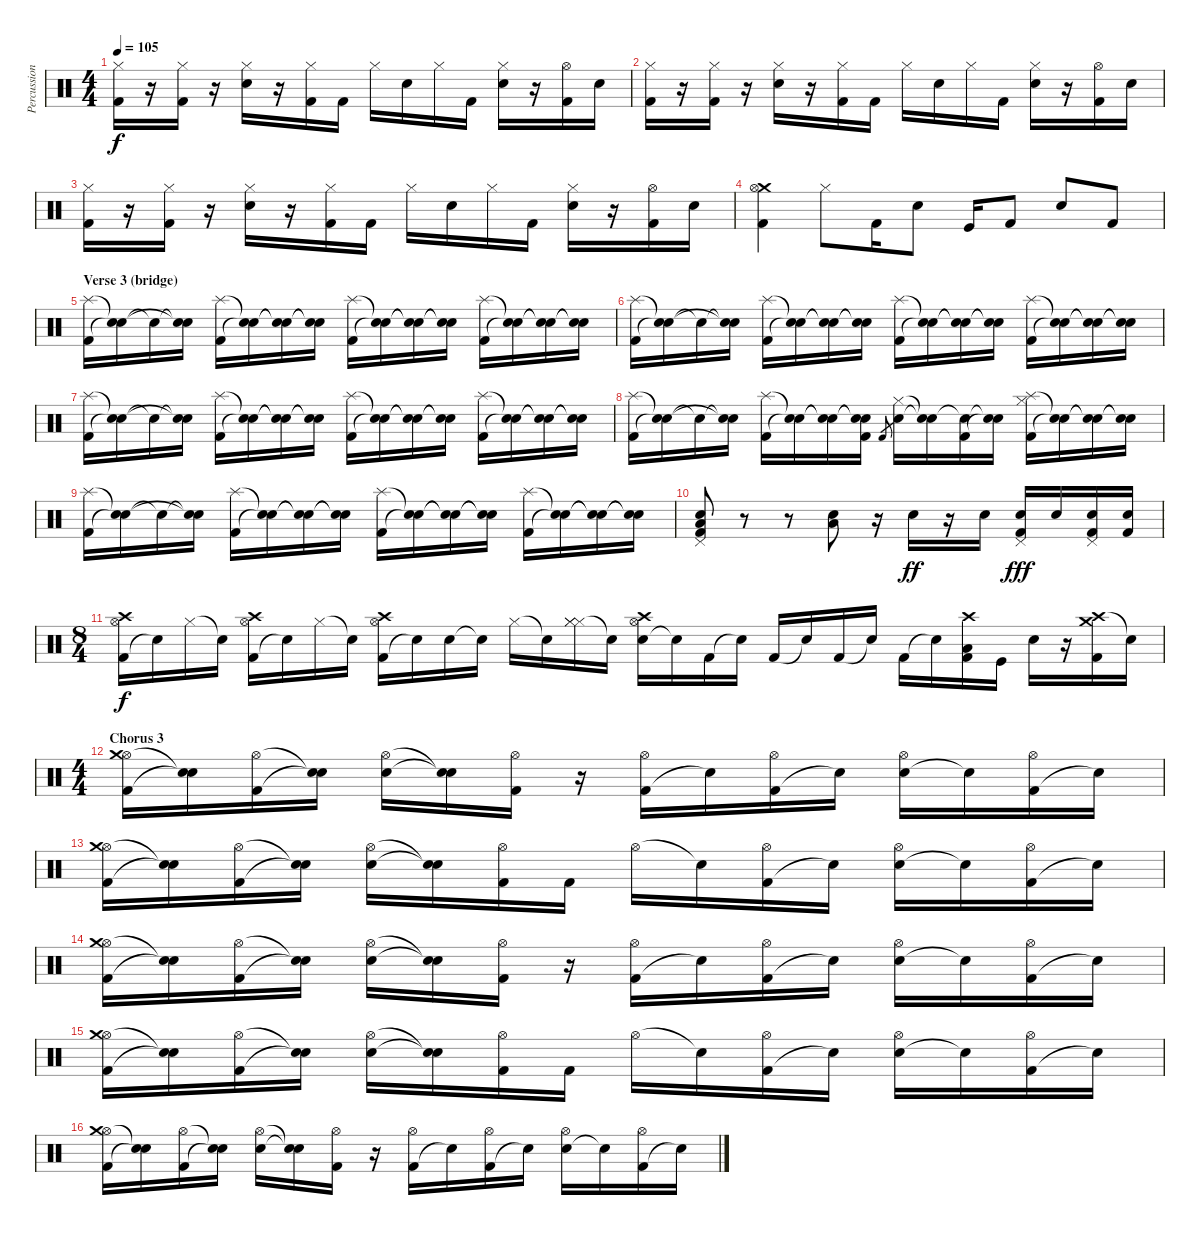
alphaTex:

\track ("Percussion" "Percussion") {instrument percussion}
\staff {score}
\articulation defaults
\ts (4 4)
\tempo 105
\clef neutral
\ks c
("Hi-Hat (closed)" "Kick (hit) 2").16{dy f} r.16 ("Hi-Hat (closed)" "Kick (hit) 2").16 r.16 ("Hi-Hat (closed)" "Electric Snare (hit)").16 r.16 ("Hi-Hat (closed)" "Kick (hit) 2").16 "Kick (hit) 2".16 "Hi-Hat (closed)".16 "Electric Snare (hit)".16 "Hi-Hat (closed)".16 "Kick (hit) 2".16 ("Hi-Hat (closed)" "Electric Snare (hit)").16 r.16 ("Hi-Hat (open)" "Kick (hit) 2").16 "Electric Snare (hit)".16 |
("Hi-Hat (closed)" "Kick (hit) 2").16 r.16 ("Hi-Hat (closed)" "Kick (hit) 2").16 r.16 ("Hi-Hat (closed)" "Electric Snare (hit)").16 r.16 ("Hi-Hat (closed)" "Kick (hit) 2").16 "Kick (hit) 2".16 "Hi-Hat (closed)".16 "Electric Snare (hit)".16 "Hi-Hat (closed)".16 "Kick (hit) 2".16 ("Hi-Hat (closed)" "Electric Snare (hit)").16 r.16 ("Hi-Hat (open)" "Kick (hit) 2").16 "Electric Snare (hit)".16 |
("Hi-Hat (closed)" "Kick (hit) 2").16 r.16 ("Hi-Hat (closed)" "Kick (hit) 2").16 r.16 ("Hi-Hat (closed)" "Electric Snare (hit)").16 r.16 ("Hi-Hat (closed)" "Kick (hit) 2").16 "Kick (hit) 2".16 "Hi-Hat (closed)".16 "Electric Snare (hit)".16 "Hi-Hat (closed)".16 "Kick (hit) 2".16 ("Hi-Hat (closed)" "Electric Snare (hit)").16 r.16 ("Hi-Hat (open)" "Kick (hit) 2").16 "Electric Snare (hit)".16 |
("Crash medium (hit)" "Kick (hit) 2" "Hi-Hat (open)").4 "Hi-Hat (closed)".8 "Kick (hit) 2".16 "Snare (hit) 2".8 "Kick (hit)".16 "Kick (hit) 2".8 "Snare (hit) 2".8 "Kick (hit) 2".8 |
\section ("" "Verse 3 (bridge)")
("Kick (hit) 2" "Splash (hit)").16 ("Snare (hit)"{t} "Snare (hit)"{t}).16 "Snare (hit)"{t}.16 ("Snare (hit)"{t} "Snare (hit)"{t}).16 ("Kick (hit) 2" "Splash (hit)").16 ("Snare (hit)"{t} "Snare (hit)"{t}).16 ("Snare (hit)"{t} "Snare (hit)"{t}).16 ("Snare (hit)"{t} "Snare (hit)"{t}).16 ("Kick (hit) 2" "Splash (hit)").16 ("Snare (hit)"{t} "Snare (hit)"{t}).16 ("Snare (hit)"{t} "Snare (hit)"{t}).16 ("Snare (hit)"{t} "Snare (hit)"{t}).16 ("Kick (hit) 2" "Splash (hit)").16 ("Snare (hit)"{t} "Snare (hit)"{t}).16 ("Snare (hit)"{t} "Snare (hit)"{t}).16 ("Snare (hit)"{t} "Snare (hit)"{t}).16 |
("Kick (hit) 2" "Splash (hit)").16 ("Snare (hit)"{t} "Snare (hit)"{t}).16 "Snare (hit)"{t}.16 ("Snare (hit)"{t} "Snare (hit)"{t}).16 ("Kick (hit) 2" "Splash (hit)").16 ("Snare (hit)"{t} "Snare (hit)"{t}).16 ("Snare (hit)"{t} "Snare (hit)"{t}).16 ("Snare (hit)"{t} "Snare (hit)"{t}).16 ("Kick (hit) 2" "Splash (hit)").16 ("Snare (hit)"{t} "Snare (hit)"{t}).16 ("Snare (hit)"{t} "Snare (hit)"{t}).16 ("Snare (hit)"{t} "Snare (hit)"{t}).16 ("Kick (hit) 2" "Splash (hit)").16 ("Snare (hit)"{t} "Snare (hit)"{t}).16 ("Snare (hit)"{t} "Snare (hit)"{t}).16 ("Snare (hit)"{t} "Snare (hit)"{t}).16 |
("Kick (hit) 2" "Splash (hit)").16 ("Snare (hit)"{t} "Snare (hit)"{t}).16 "Snare (hit)"{t}.16 ("Snare (hit)"{t} "Snare (hit)"{t}).16 ("Kick (hit) 2" "Splash (hit)").16 ("Snare (hit)"{t} "Snare (hit)"{t}).16 ("Snare (hit)"{t} "Snare (hit)"{t}).16 ("Snare (hit)"{t} "Snare (hit)"{t}).16 ("Kick (hit) 2" "Splash (hit)").16 ("Snare (hit)"{t} "Snare (hit)"{t}).16 ("Snare (hit)"{t} "Snare (hit)"{t}).16 ("Snare (hit)"{t} "Snare (hit)"{t}).16 ("Kick (hit) 2" "Splash (hit)").16 ("Snare (hit)"{t} "Snare (hit)"{t}).16 ("Snare (hit)"{t} "Snare (hit)"{t}).16 ("Snare (hit)"{t} "Snare (hit)"{t}).16 |
("Kick (hit) 2" "Splash (hit)").16 ("Snare (hit)"{t} "Snare (hit)"{t}).16 "Snare (hit)"{t}.16 ("Snare (hit)"{t} "Snare (hit)"{t}).16 ("Kick (hit) 2" "Splash (hit)").16 ("Snare (hit)"{t} "Snare (hit)"{t}).16 ("Snare (hit)"{t} "Snare (hit)"{t}).16 ("Snare (hit)"{t} "Snare (hit)"{t} "Kick (hit) 2").16 "Kick (hit) 2".8{gr} ("Hi-Hat (closed)" "Snare (hit) 2").16 ("Snare (hit)"{t} "Snare (hit)"{t}).16 ("Snare (hit)"{t} "Kick (hit) 2").16 ("Snare (hit)"{t} "Snare (hit)"{t}).16 ("Kick (hit) 2" "Splash (hit)" "Hi-Hat (closed)").16 ("Snare (hit)"{t} "Snare (hit)"{t}).16 ("Snare (hit)"{t} "Snare (hit)"{t}).16 ("Snare (hit)"{t} "Snare (hit)"{t}).16 |
("Kick (hit) 2" "Splash (hit)").16 ("Snare (hit)"{t} "Snare (hit)"{t}).16 "Snare (hit)"{t}.16 ("Snare (hit)"{t} "Snare (hit)"{t}).16 ("Kick (hit) 2" "Splash (hit)").16 ("Snare (hit)"{t} "Snare (hit)"{t}).16 ("Snare (hit)"{t} "Snare (hit)"{t}).16 ("Snare (hit)"{t} "Snare (hit)"{t}).16 ("Kick (hit) 2" "Splash (hit)").16 ("Snare (hit)"{t} "Snare (hit)"{t}).16 ("Snare (hit)"{t} "Snare (hit)"{t}).16 ("Snare (hit)"{t} "Snare (hit)"{t}).16 ("Kick (hit) 2" "Splash (hit)").16 ("Snare (hit)"{t} "Snare (hit)"{t}).16 ("Snare (hit)"{t} "Snare (hit)"{t}).16 ("Snare (hit)"{t} "Snare (hit)"{t}).16 |
("Pedal Hi-Hat (hit)" "Low Tom (hit)" "Electric Snare (hit)" "Kick (hit) 2").8 r.8 r.8 ("Low Tom (hit)" "Electric Snare (hit)").8 r.16 "Snare (hit) 2".16{dy ff} r.16 "Snare (hit) 2".16 ("Pedal Hi-Hat (hit)" "Snare (hit) 2" "Kick (hit) 2").16{dy fff} "Snare (hit) 2".16 ("Pedal Hi-Hat (hit)" "Snare (hit) 2" "Kick (hit) 2").16 ("Snare (hit) 2" "Kick (hit) 2").16 |
\ts (8 4)
("Kick (hit) 2" "Hi-Hat (open)" "Crash high (hit)").16{dy f} "Snare (hit)"{t}.16 "Hi-Hat (closed)".16 "Snare (hit)"{t}.16 ("Kick (hit) 2" "Hi-Hat (open)" "Crash high (hit)").16 "Snare (hit)"{t}.16 "Hi-Hat (closed)".16 "Snare (hit)"{t}.16 ("Kick (hit) 2" "Hi-Hat (open)" "Crash high (hit)").16 "Snare (hit)"{t}.16 "Snare (hit) 2".16 "Snare (hit)"{t}.16 "Hi-Hat (closed)".16 "Snare (hit)"{t}.16 ("Hi-Hat (closed)" "Hi-Hat (closed)" "Hi-Hat (closed)").16 "Snare (hit)"{t}.16 ("Snare (hit) 2" "Hi-Hat (open)" "Crash high (hit)").16 "Snare (hit)"{t}.16 "Kick (hit) 2".16 "Snare (hit)"{t}.16 "Kick (hit) 2".16 "Snare (hit)"{t}.16 "Kick (hit) 2".16 "Snare (hit)"{t}.16 "Kick (hit) 2".16 "Snare (hit)"{t}.16 ("Kick (hit) 2" "Crash high (hit)" "Low Tom (hit)").16 "Kick (hit)".16 "Snare (hit) 2".16 r.16 ("Crash high (hit)" "Crash medium (hit)" "Kick (hit) 2").16 "Snare (hit)"{t}.16 |
\ts (4 4)
\section ("" "Chorus 3")
("Kick (hit) 2" "Hi-Hat (open)" "Crash medium (hit)").16 ("Snare (hit)"{t} "Snare (hit)"{t}).16 ("Kick (hit) 2" "Hi-Hat (open)").16 ("Snare (hit)"{t} "Snare (hit)"{t}).16 ("Electric Snare (hit)" "Hi-Hat (open)").16 ("Snare (hit)"{t} "Snare (hit)"{t}).16 ("Kick (hit) 2" "Hi-Hat (open)").16 r.16 ("Kick (hit) 2" "Hi-Hat (open)").16 "Snare (hit)"{t}.16 ("Kick (hit) 2" "Hi-Hat (open)").16 "Snare (hit)"{t}.16 ("Snare (hit) 2" "Hi-Hat (open)").16 "Snare (hit)"{t}.16 ("Kick (hit) 2" "Hi-Hat (open)").16 "Snare (hit)"{t}.16 |
("Kick (hit) 2" "Hi-Hat (open)" "Crash medium (hit)").16 ("Snare (hit)"{t} "Snare (hit)"{t}).16 ("Kick (hit) 2" "Hi-Hat (open)").16 ("Snare (hit)"{t} "Snare (hit)"{t}).16 ("Electric Snare (hit)" "Hi-Hat (open)").16 ("Snare (hit)"{t} "Snare (hit)"{t}).16 ("Kick (hit) 2" "Hi-Hat (open)").16 "Kick (hit) 2".16 "Hi-Hat (open)".16 "Snare (hit)"{t}.16 ("Kick (hit) 2" "Hi-Hat (open)").16 "Snare (hit)"{t}.16 ("Snare (hit) 2" "Hi-Hat (open)").16 "Snare (hit)"{t}.16 ("Kick (hit) 2" "Hi-Hat (open)").16 "Snare (hit)"{t}.16 |
("Kick (hit) 2" "Hi-Hat (open)" "Crash medium (hit)").16 ("Snare (hit)"{t} "Snare (hit)"{t}).16 ("Kick (hit) 2" "Hi-Hat (open)").16 ("Snare (hit)"{t} "Snare (hit)"{t}).16 ("Electric Snare (hit)" "Hi-Hat (open)").16 ("Snare (hit)"{t} "Snare (hit)"{t}).16 ("Kick (hit) 2" "Hi-Hat (open)").16 r.16 ("Kick (hit) 2" "Hi-Hat (open)").16 "Snare (hit)"{t}.16 ("Kick (hit) 2" "Hi-Hat (open)").16 "Snare (hit)"{t}.16 ("Snare (hit) 2" "Hi-Hat (open)").16 "Snare (hit)"{t}.16 ("Kick (hit) 2" "Hi-Hat (open)").16 "Snare (hit)"{t}.16 |
("Kick (hit) 2" "Hi-Hat (open)" "Crash medium (hit)").16 ("Snare (hit)"{t} "Snare (hit)"{t}).16 ("Kick (hit) 2" "Hi-Hat (open)").16 ("Snare (hit)"{t} "Snare (hit)"{t}).16 ("Electric Snare (hit)" "Hi-Hat (open)").16 ("Snare (hit)"{t} "Snare (hit)"{t}).16 ("Kick (hit) 2" "Hi-Hat (open)").16 "Kick (hit) 2".16 "Hi-Hat (open)".16 "Snare (hit)"{t}.16 ("Kick (hit) 2" "Hi-Hat (open)").16 "Snare (hit)"{t}.16 ("Snare (hit) 2" "Hi-Hat (open)").16 "Snare (hit)"{t}.16 ("Kick (hit) 2" "Hi-Hat (open)").16 "Snare (hit)"{t}.16 |
("Kick (hit) 2" "Hi-Hat (open)" "Crash medium (hit)").16 ("Snare (hit)"{t} "Snare (hit)"{t}).16 ("Kick (hit) 2" "Hi-Hat (open)").16 ("Snare (hit)"{t} "Snare (hit)"{t}).16 ("Electric Snare (hit)" "Hi-Hat (open)").16 ("Snare (hit)"{t} "Snare (hit)"{t}).16 ("Kick (hit) 2" "Hi-Hat (open)").16 r.16 ("Kick (hit) 2" "Hi-Hat (open)").16 "Snare (hit)"{t}.16 ("Kick (hit) 2" "Hi-Hat (open)").16 "Snare (hit)"{t}.16 ("Snare (hit) 2" "Hi-Hat (open)").16 "Snare (hit)"{t}.16 ("Kick (hit) 2" "Hi-Hat (open)").16 "Snare (hit)"{t}.16
